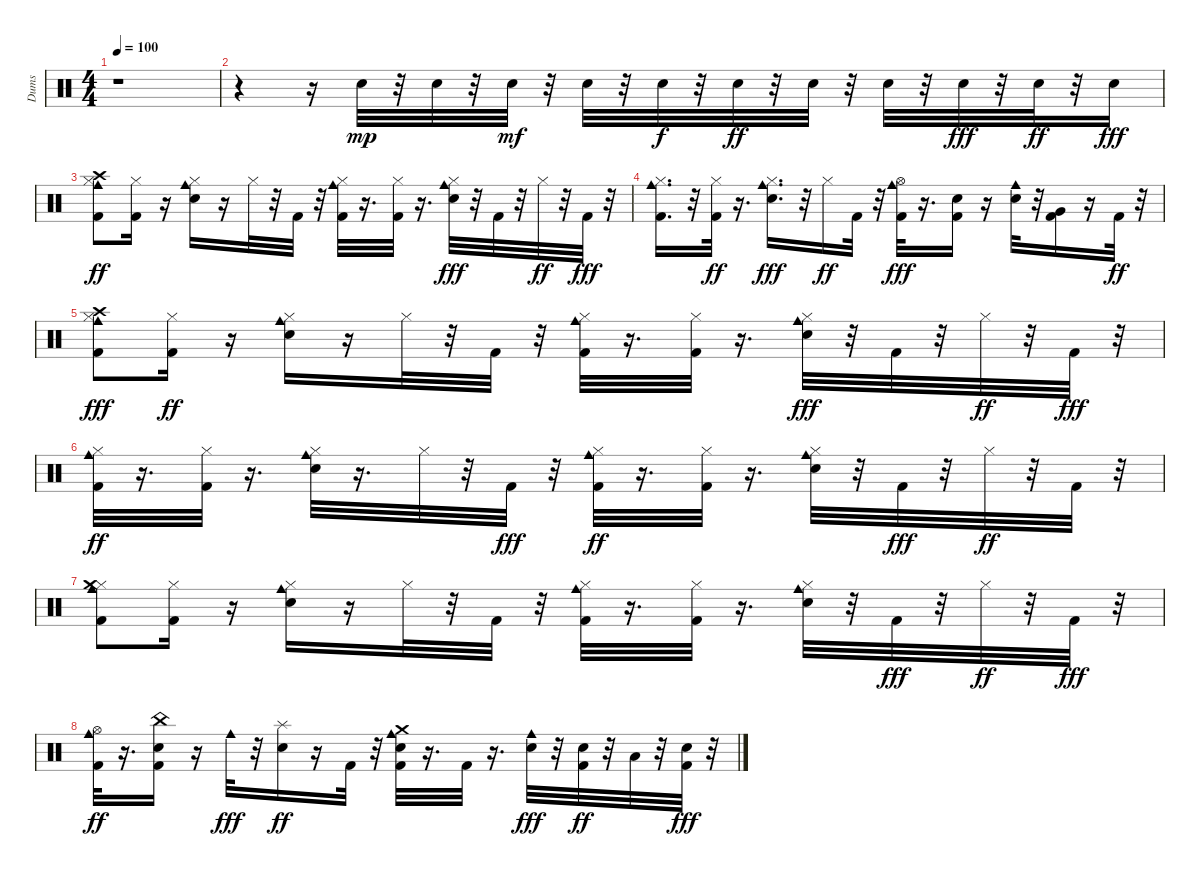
\track ("Dums" "Dums") {instrument percussion}
\staff {score}
\articulation defaults
\ts (4 4)
\tempo 100
\clef neutral
\ks c
r.1{dy f} |
r.4 r.16 "Electric Snare (hit)".32{dy mp} r.32 "Electric Snare (hit)".32 r.32 "Electric Snare (hit)".32{dy mf} r.32 "Electric Snare (hit)".32 r.32 "Electric Snare (hit)".32{dy f} r.32 "Electric Snare (hit)".32{dy ff} r.32 "Electric Snare (hit)".32 r.32 "Electric Snare (hit)".32 r.32 "Electric Snare (hit)".32{dy fff} r.32 "Electric Snare (hit)".32{dy ff} r.32 "Electric Snare (hit)".16{dy fff} |
("Kick (hit) 2" "Hi-Hat (closed)" "Cowbell medium (hit)" "Crash high (hit)").8{dy ff} ("Kick (hit) 2" "Hi-Hat (closed)").16 r.16 ("Electric Snare (hit)" "Hi-Hat (closed)" "Cowbell medium (hit)").16 r.16 "Hi-Hat (closed)".32 r.32 "Kick (hit) 2".32 r.32 ("Kick (hit) 2" "Hi-Hat (closed)" "Cowbell medium (hit)").32 r.16{d} ("Kick (hit) 2" "Hi-Hat (closed)").32 r.16{d} ("Electric Snare (hit)" "Hi-Hat (closed)" "Cowbell medium (hit)").32{dy fff} r.32 "Kick (hit) 2".32 r.32 "Hi-Hat (closed)".32{dy ff} r.32 "Kick (hit) 2".32{dy fff} r.32 |
("Kick (hit) 2" "Hi-Hat (closed)" "Cowbell medium (hit)").16{d} r.32 ("Kick (hit) 2" "Hi-Hat (closed)").32{dy ff} r.16{d} ("Electric Snare (hit)" "Hi-Hat (closed)" "Cowbell medium (hit)").16{d dy fff} r.32 "Hi-Hat (closed)".16{dy ff} "Kick (hit) 2".32 r.32 ("Kick (hit) 2" "Hi-Hat (open)" "Cowbell medium (hit)").32{dy fff} r.16{d} ("Kick (hit) 2" "Electric Snare (hit)").16 r.16 ("Electric Snare (hit)" "Cowbell medium (hit)").32 r.32 ("Kick (hit) 2" "Very Low Tom (hit)").16 r.16 "Kick (hit) 2".32{dy ff} r.32 |
("Kick (hit) 2" "Hi-Hat (closed)" "Cowbell medium (hit)" "Crash high (hit)").8{dy fff} ("Kick (hit) 2" "Hi-Hat (closed)").16{dy ff} r.16 ("Electric Snare (hit)" "Hi-Hat (closed)" "Cowbell medium (hit)").16 r.16 "Hi-Hat (closed)".32 r.32 "Kick (hit) 2".32 r.32 ("Kick (hit) 2" "Hi-Hat (closed)" "Cowbell medium (hit)").32 r.16{d} ("Kick (hit) 2" "Hi-Hat (closed)").32 r.16{d} ("Electric Snare (hit)" "Hi-Hat (closed)" "Cowbell medium (hit)").32{dy fff} r.32 "Kick (hit) 2".32 r.32 "Hi-Hat (closed)".32{dy ff} r.32 "Kick (hit) 2".32{dy fff} r.32 |
("Kick (hit) 2" "Hi-Hat (closed)" "Cowbell medium (hit)").32{dy ff} r.16{d} ("Kick (hit) 2" "Hi-Hat (closed)").32 r.16{d} ("Electric Snare (hit)" "Hi-Hat (closed)" "Cowbell medium (hit)").32 r.16{d} "Hi-Hat (closed)".32 r.32 "Kick (hit) 2".32{dy fff} r.32 ("Kick (hit) 2" "Hi-Hat (closed)" "Cowbell medium (hit)").32{dy ff} r.16{d} ("Kick (hit) 2" "Hi-Hat (closed)").32 r.16{d} ("Electric Snare (hit)" "Hi-Hat (closed)" "Cowbell medium (hit)").32 r.32 "Kick (hit) 2".32{dy fff} r.32 "Hi-Hat (closed)".32{dy ff} r.32 "Kick (hit) 2".32 r.32 |
("Kick (hit) 2" "Hi-Hat (closed)" "Cowbell medium (hit)" "Crash medium (hit)").8 ("Kick (hit) 2" "Hi-Hat (closed)").16 r.16 ("Electric Snare (hit)" "Hi-Hat (closed)" "Cowbell medium (hit)").16 r.16 "Hi-Hat (closed)".32 r.32 "Kick (hit) 2".32 r.32 ("Kick (hit) 2" "Hi-Hat (closed)" "Cowbell medium (hit)").32 r.16{d} ("Kick (hit) 2" "Hi-Hat (closed)").32 r.16{d} ("Electric Snare (hit)" "Hi-Hat (closed)" "Cowbell medium (hit)").32 r.32 "Kick (hit) 2".32{dy fff} r.32 "Hi-Hat (closed)".32{dy ff} r.32 "Kick (hit) 2".32{dy fff} r.32 |
("Kick (hit) 2" "Hi-Hat (open)" "Cowbell medium (hit)").32{dy ff} r.16{d} ("Kick (hit) 2" "Electric Snare (hit)" "China (hit)").16 r.16 "Cowbell medium (hit)".32{dy fff} r.32 ("Electric Snare (hit)" "Splash (hit)").16{dy ff} r.16 "Kick (hit) 2".32 r.32 ("Kick (hit) 2" "Electric Snare (hit)" "Crash medium (hit)" "Cowbell medium (hit)").32 r.16{d} "Kick (hit) 2".32 r.16{d} ("Electric Snare (hit)" "Cowbell medium (hit)").32{dy fff} r.32 ("Kick (hit) 2" "Electric Snare (hit)").32{dy ff} r.32 "Low Tom (hit)".32 r.32 ("Kick (hit) 2" "Electric Snare (hit)").32{dy fff} r.32
